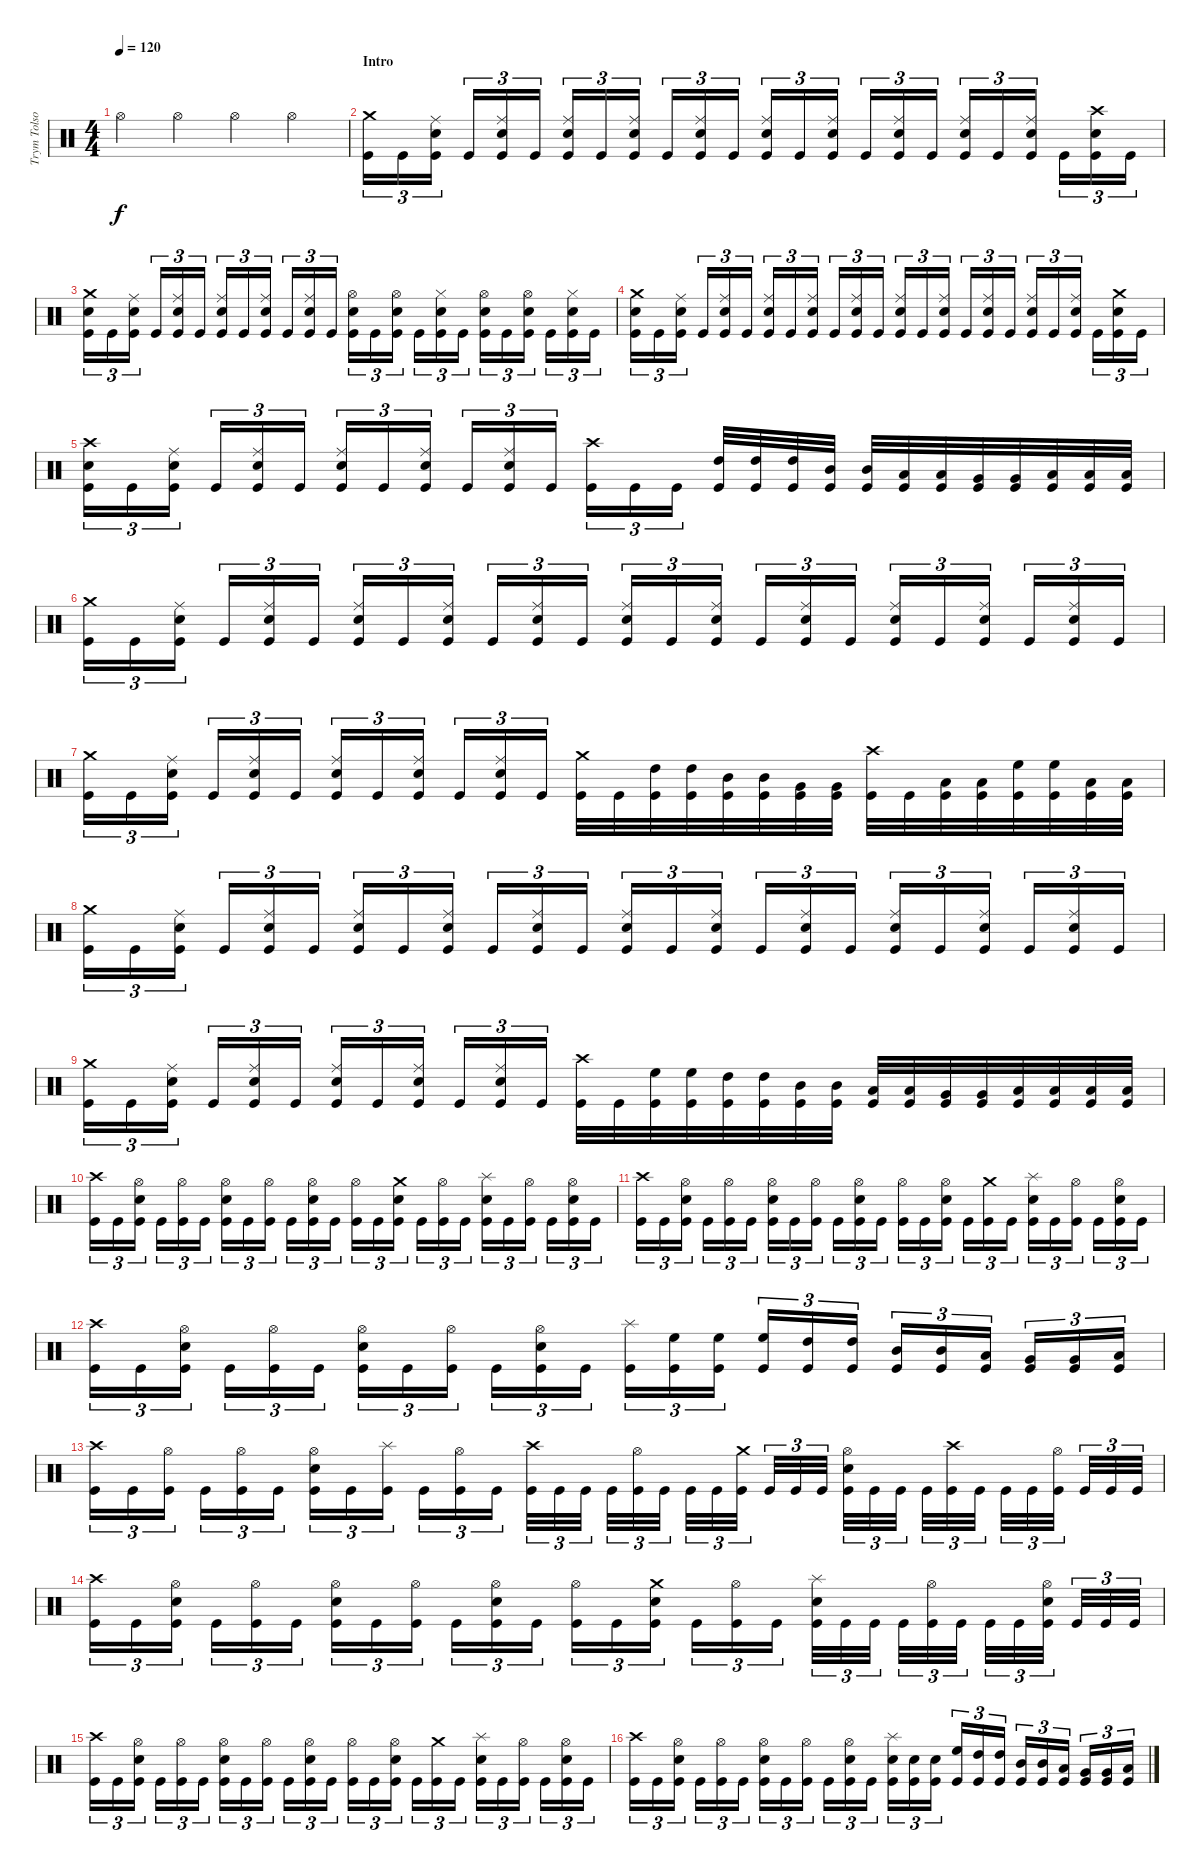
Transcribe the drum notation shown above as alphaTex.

\track ("Trym Tolson" "Trym Tolso") {instrument percussion}
\staff {score}
\articulation defaults
\ts (4 4)
\tempo 120
\clef neutral
\ks c "Hi-Hat (open)".4{dy f} "Hi-Hat (open)".4 "Hi-Hat (open)".4 "Hi-Hat (open)".4
|
\section ("" "Intro")
("Crash medium (hit)" "Kick (hit)").16{tu (3 2)} "Kick (hit)".16{tu (3 2)} ("Ride (middle)" "Electric Snare (hit)" "Kick (hit)").16{tu (3 2)} "Kick (hit)".16{tu (3 2)} ("Ride (middle)" "Electric Snare (hit)" "Kick (hit)").16{tu (3 2)} "Kick (hit)".16{tu (3 2)} ("Ride (middle)" "Electric Snare (hit)" "Kick (hit)").16{tu (3 2)} "Kick (hit)".16{tu (3 2)} ("Ride (middle)" "Electric Snare (hit)" "Kick (hit)").16{tu (3 2)} "Kick (hit)".16{tu (3 2)} ("Ride (middle)" "Electric Snare (hit)" "Kick (hit)").16{tu (3 2)} "Kick (hit)".16{tu (3 2)} ("Ride (middle)" "Electric Snare (hit)" "Kick (hit)").16{tu (3 2)} "Kick (hit)".16{tu (3 2)} ("Ride (middle)" "Electric Snare (hit)" "Kick (hit)").16{tu (3 2)} "Kick (hit)".16{tu (3 2)} ("Ride (middle)" "Electric Snare (hit)" "Kick (hit)").16{tu (3 2)} "Kick (hit)".16{tu (3 2)} ("Ride (middle)" "Electric Snare (hit)" "Kick (hit)").16{tu (3 2)} "Kick (hit)".16{tu (3 2)} ("Ride (middle)" "Electric Snare (hit)" "Kick (hit)").16{tu (3 2)} "Kick (hit)".16{tu (3 2)} ("Crash high (hit)" "Electric Snare (hit)" "Kick (hit)").16{tu (3 2)} "Kick (hit)".16{tu (3 2)} |
("Crash medium (hit)" "Electric Snare (hit)" "Kick (hit)").16{tu (3 2)} "Kick (hit)".16{tu (3 2)} ("Ride (middle)" "Electric Snare (hit)" "Kick (hit)").16{tu (3 2)} "Kick (hit)".16{tu (3 2)} ("Ride (middle)" "Electric Snare (hit)" "Kick (hit)").16{tu (3 2)} "Kick (hit)".16{tu (3 2)} ("Ride (middle)" "Electric Snare (hit)" "Kick (hit)").16{tu (3 2)} "Kick (hit)".16{tu (3 2)} ("Ride (middle)" "Electric Snare (hit)" "Kick (hit)").16{tu (3 2)} "Kick (hit)".16{tu (3 2)} ("Ride (middle)" "Electric Snare (hit)" "Kick (hit)").16{tu (3 2)} "Kick (hit)".16{tu (3 2)} ("Hi-Hat (open)" "Electric Snare (hit)" "Kick (hit)").16{tu (3 2)} "Kick (hit)".16{tu (3 2)} ("Hi-Hat (open)" "Electric Snare (hit)" "Kick (hit)").16{tu (3 2)} "Kick (hit)".16{tu (3 2)} ("Hi-Hat (closed)" "Electric Snare (hit)" "Kick (hit)").16{tu (3 2)} "Kick (hit)".16{tu (3 2)} ("Hi-Hat (open)" "Electric Snare (hit)" "Kick (hit)").16{tu (3 2)} "Kick (hit)".16{tu (3 2)} ("Hi-Hat (open)" "Electric Snare (hit)" "Kick (hit)").16{tu (3 2)} "Kick (hit)".16{tu (3 2)} ("Hi-Hat (closed)" "Electric Snare (hit)" "Kick (hit)").16{tu (3 2)} "Kick (hit)".16{tu (3 2)} |
("Crash medium (hit)" "Electric Snare (hit)" "Kick (hit)").16{tu (3 2)} "Kick (hit)".16{tu (3 2)} ("Ride (middle)" "Electric Snare (hit)" "Kick (hit)").16{tu (3 2)} "Kick (hit)".16{tu (3 2)} ("Ride (middle)" "Electric Snare (hit)" "Kick (hit)").16{tu (3 2)} "Kick (hit)".16{tu (3 2)} ("Ride (middle)" "Electric Snare (hit)" "Kick (hit)").16{tu (3 2)} "Kick (hit)".16{tu (3 2)} ("Ride (middle)" "Electric Snare (hit)" "Kick (hit)").16{tu (3 2)} "Kick (hit)".16{tu (3 2)} ("Ride (middle)" "Electric Snare (hit)" "Kick (hit)").16{tu (3 2)} "Kick (hit)".16{tu (3 2)} ("Ride (middle)" "Electric Snare (hit)" "Kick (hit)").16{tu (3 2)} "Kick (hit)".16{tu (3 2)} ("Ride (middle)" "Electric Snare (hit)" "Kick (hit)").16{tu (3 2)} "Kick (hit)".16{tu (3 2)} ("Ride (middle)" "Electric Snare (hit)" "Kick (hit)").16{tu (3 2)} "Kick (hit)".16{tu (3 2)} ("Ride (middle)" "Electric Snare (hit)" "Kick (hit)").16{tu (3 2)} "Kick (hit)".16{tu (3 2)} ("Ride (middle)" "Electric Snare (hit)" "Kick (hit)").16{tu (3 2)} "Kick (hit)".16{tu (3 2)} ("Crash medium (hit)" "Electric Snare (hit)" "Kick (hit)").16{tu (3 2)} "Kick (hit)".16{tu (3 2)} |
("Crash high (hit)" "Electric Snare (hit)" "Kick (hit)").16{tu (3 2)} "Kick (hit)".16{tu (3 2)} ("Ride (middle)" "Electric Snare (hit)" "Kick (hit)").16{tu (3 2)} "Kick (hit)".16{tu (3 2)} ("Ride (middle)" "Electric Snare (hit)" "Kick (hit)").16{tu (3 2)} "Kick (hit)".16{tu (3 2)} ("Ride (middle)" "Electric Snare (hit)" "Kick (hit)").16{tu (3 2)} "Kick (hit)".16{tu (3 2)} ("Ride (middle)" "Electric Snare (hit)" "Kick (hit)").16{tu (3 2)} "Kick (hit)".16{tu (3 2)} ("Ride (middle)" "Electric Snare (hit)" "Kick (hit)").16{tu (3 2)} "Kick (hit)".16{tu (3 2)} ("Crash high (hit)" "Kick (hit)").16{tu (3 2)} "Kick (hit)".16{tu (3 2)} "Kick (hit)".16{tu (3 2)} ("High Tom (hit)" "Kick (hit)").32 ("High Tom (hit)" "Kick (hit)").32 ("High Tom (hit)" "Kick (hit)").32 ("Mid Tom (hit)" "Kick (hit)").32 ("Mid Tom (hit)" "Kick (hit)").32 ("Low Tom (hit)" "Kick (hit)").32 ("Low Tom (hit)" "Kick (hit)").32 ("Very Low Tom (hit)" "Kick (hit)").32 ("Very Low Tom (hit)" "Kick (hit)").32 ("Low Floor Tom (hit)" "Kick (hit)").32 ("Low Floor Tom (hit)" "Kick (hit)").32 ("Low Floor Tom (hit)" "Kick (hit)").32 |
("Crash medium (hit)" "Kick (hit)").16{tu (3 2)} "Kick (hit)".16{tu (3 2)} ("Ride (middle)" "Electric Snare (hit)" "Kick (hit)").16{tu (3 2)} "Kick (hit)".16{tu (3 2)} ("Ride (middle)" "Electric Snare (hit)" "Kick (hit)").16{tu (3 2)} "Kick (hit)".16{tu (3 2)} ("Ride (middle)" "Electric Snare (hit)" "Kick (hit)").16{tu (3 2)} "Kick (hit)".16{tu (3 2)} ("Ride (middle)" "Electric Snare (hit)" "Kick (hit)").16{tu (3 2)} "Kick (hit)".16{tu (3 2)} ("Ride (middle)" "Electric Snare (hit)" "Kick (hit)").16{tu (3 2)} "Kick (hit)".16{tu (3 2)} ("Ride (middle)" "Electric Snare (hit)" "Kick (hit)").16{tu (3 2)} "Kick (hit)".16{tu (3 2)} ("Ride (middle)" "Electric Snare (hit)" "Kick (hit)").16{tu (3 2)} "Kick (hit)".16{tu (3 2)} ("Ride (middle)" "Electric Snare (hit)" "Kick (hit)").16{tu (3 2)} "Kick (hit)".16{tu (3 2)} ("Ride (middle)" "Electric Snare (hit)" "Kick (hit)").16{tu (3 2)} "Kick (hit)".16{tu (3 2)} ("Ride (middle)" "Electric Snare (hit)" "Kick (hit)").16{tu (3 2)} "Kick (hit)".16{tu (3 2)} ("Ride (middle)" "Electric Snare (hit)" "Kick (hit)").16{tu (3 2)} "Kick (hit)".16{tu (3 2)} |
("Crash medium (hit)" "Kick (hit)").16{tu (3 2)} "Kick (hit)".16{tu (3 2)} ("Ride (middle)" "Electric Snare (hit)" "Kick (hit)").16{tu (3 2)} "Kick (hit)".16{tu (3 2)} ("Ride (middle)" "Electric Snare (hit)" "Kick (hit)").16{tu (3 2)} "Kick (hit)".16{tu (3 2)} ("Ride (middle)" "Electric Snare (hit)" "Kick (hit)").16{tu (3 2)} "Kick (hit)".16{tu (3 2)} ("Ride (middle)" "Electric Snare (hit)" "Kick (hit)").16{tu (3 2)} "Kick (hit)".16{tu (3 2)} ("Ride (middle)" "Electric Snare (hit)" "Kick (hit)").16{tu (3 2)} "Kick (hit)".16{tu (3 2)} ("Crash medium (hit)" "Kick (hit)").32 "Kick (hit)".32 ("High Tom (hit)" "Kick (hit)").32 ("High Tom (hit)" "Kick (hit)").32 ("Mid Tom (hit)" "Kick (hit)").32 ("Mid Tom (hit)" "Kick (hit)").32 ("Very Low Tom (hit)" "Kick (hit)").32 ("Very Low Tom (hit)" "Kick (hit)").32 ("Crash high (hit)" "Kick (hit)").32 "Kick (hit)".32 ("Low Tom (hit)" "Kick (hit)").32 ("Low Tom (hit)" "Kick (hit)").32 ("High Floor Tom (hit)" "Kick (hit)").32 ("High Floor Tom (hit)" "Kick (hit)").32 ("Low Floor Tom (hit)" "Kick (hit)").32 ("Low Floor Tom (hit)" "Kick (hit)").32 |
("Crash medium (hit)" "Kick (hit)").16{tu (3 2)} "Kick (hit)".16{tu (3 2)} ("Ride (middle)" "Electric Snare (hit)" "Kick (hit)").16{tu (3 2)} "Kick (hit)".16{tu (3 2)} ("Ride (middle)" "Electric Snare (hit)" "Kick (hit)").16{tu (3 2)} "Kick (hit)".16{tu (3 2)} ("Ride (middle)" "Electric Snare (hit)" "Kick (hit)").16{tu (3 2)} "Kick (hit)".16{tu (3 2)} ("Ride (middle)" "Electric Snare (hit)" "Kick (hit)").16{tu (3 2)} "Kick (hit)".16{tu (3 2)} ("Ride (middle)" "Electric Snare (hit)" "Kick (hit)").16{tu (3 2)} "Kick (hit)".16{tu (3 2)} ("Ride (middle)" "Electric Snare (hit)" "Kick (hit)").16{tu (3 2)} "Kick (hit)".16{tu (3 2)} ("Ride (middle)" "Electric Snare (hit)" "Kick (hit)").16{tu (3 2)} "Kick (hit)".16{tu (3 2)} ("Ride (middle)" "Electric Snare (hit)" "Kick (hit)").16{tu (3 2)} "Kick (hit)".16{tu (3 2)} ("Ride (middle)" "Electric Snare (hit)" "Kick (hit)").16{tu (3 2)} "Kick (hit)".16{tu (3 2)} ("Ride (middle)" "Electric Snare (hit)" "Kick (hit)").16{tu (3 2)} "Kick (hit)".16{tu (3 2)} ("Ride (middle)" "Electric Snare (hit)" "Kick (hit)").16{tu (3 2)} "Kick (hit)".16{tu (3 2)} |
("Crash medium (hit)" "Kick (hit)").16{tu (3 2)} "Kick (hit)".16{tu (3 2)} ("Ride (middle)" "Electric Snare (hit)" "Kick (hit)").16{tu (3 2)} "Kick (hit)".16{tu (3 2)} ("Ride (middle)" "Electric Snare (hit)" "Kick (hit)").16{tu (3 2)} "Kick (hit)".16{tu (3 2)} ("Ride (middle)" "Electric Snare (hit)" "Kick (hit)").16{tu (3 2)} "Kick (hit)".16{tu (3 2)} ("Ride (middle)" "Electric Snare (hit)" "Kick (hit)").16{tu (3 2)} "Kick (hit)".16{tu (3 2)} ("Ride (middle)" "Electric Snare (hit)" "Kick (hit)").16{tu (3 2)} "Kick (hit)".16{tu (3 2)} ("Crash high (hit)" "Kick (hit)").32 "Kick (hit)".32 ("High Floor Tom (hit)" "Kick (hit)").32 ("High Floor Tom (hit)" "Kick (hit)").32 ("High Tom (hit)" "Kick (hit)").32 ("High Tom (hit)" "Kick (hit)").32 ("Mid Tom (hit)" "Kick (hit)").32 ("Mid Tom (hit)" "Kick (hit)").32 ("Low Tom (hit)" "Kick (hit)").32 ("Low Tom (hit)" "Kick (hit)").32 ("Very Low Tom (hit)" "Kick (hit)").32 ("Very Low Tom (hit)" "Kick (hit)").32 ("Low Floor Tom (hit)" "Kick (hit)").32 ("Low Floor Tom (hit)" "Kick (hit)").32 ("Low Floor Tom (hit)" "Kick (hit)").32 ("Low Floor Tom (hit)" "Kick (hit)").32 |
("Crash high (hit)" "Kick (hit)").16{tu (3 2)} "Kick (hit)".16{tu (3 2)} ("Hi-Hat (open)" "Electric Snare (hit)" "Kick (hit)").16{tu (3 2)} "Kick (hit)".16{tu (3 2)} ("Hi-Hat (open)" "Kick (hit)").16{tu (3 2)} "Kick (hit)".16{tu (3 2)} ("Hi-Hat (open)" "Electric Snare (hit)" "Kick (hit)").16{tu (3 2)} "Kick (hit)".16{tu (3 2)} ("Hi-Hat (open)" "Kick (hit)").16{tu (3 2)} "Kick (hit)".16{tu (3 2)} ("Hi-Hat (open)" "Electric Snare (hit)" "Kick (hit)").16{tu (3 2)} "Kick (hit)".16{tu (3 2)} ("Hi-Hat (open)" "Kick (hit)").16{tu (3 2)} "Kick (hit)".16{tu (3 2)} ("Crash medium (hit)" "Electric Snare (hit)" "Kick (hit)").16{tu (3 2)} "Kick (hit)".16{tu (3 2)} ("Hi-Hat (open)" "Kick (hit)").16{tu (3 2)} "Kick (hit)".16{tu (3 2)} ("Splash (hit)" "Electric Snare (hit)" "Kick (hit)").16{tu (3 2)} "Kick (hit)".16{tu (3 2)} ("Hi-Hat (open)" "Kick (hit)").16{tu (3 2)} "Kick (hit)".16{tu (3 2)} ("Hi-Hat (open)" "Electric Snare (hit)" "Kick (hit)").16{tu (3 2)} "Kick (hit)".16{tu (3 2)} |
("Crash high (hit)" "Kick (hit)").16{tu (3 2)} "Kick (hit)".16{tu (3 2)} ("Hi-Hat (open)" "Electric Snare (hit)" "Kick (hit)").16{tu (3 2)} "Kick (hit)".16{tu (3 2)} ("Hi-Hat (open)" "Kick (hit)").16{tu (3 2)} "Kick (hit)".16{tu (3 2)} ("Hi-Hat (open)" "Electric Snare (hit)" "Kick (hit)").16{tu (3 2)} "Kick (hit)".16{tu (3 2)} ("Hi-Hat (open)" "Kick (hit)").16{tu (3 2)} "Kick (hit)".16{tu (3 2)} ("Hi-Hat (open)" "Electric Snare (hit)" "Kick (hit)").16{tu (3 2)} "Kick (hit)".16{tu (3 2)} ("Hi-Hat (open)" "Kick (hit)").16{tu (3 2)} "Kick (hit)".16{tu (3 2)} ("Hi-Hat (open)" "Electric Snare (hit)" "Kick (hit)").16{tu (3 2)} "Kick (hit)".16{tu (3 2)} ("Crash medium (hit)" "Kick (hit)").16{tu (3 2)} "Kick (hit)".16{tu (3 2)} ("Splash (hit)" "Electric Snare (hit)" "Kick (hit)").16{tu (3 2)} "Kick (hit)".16{tu (3 2)} ("Hi-Hat (open)" "Kick (hit)").16{tu (3 2)} "Kick (hit)".16{tu (3 2)} ("Hi-Hat (open)" "Electric Snare (hit)" "Kick (hit)").16{tu (3 2)} "Kick (hit)".16{tu (3 2)} |
("Crash high (hit)" "Kick (hit)").16{tu (3 2)} "Kick (hit)".16{tu (3 2)} ("Hi-Hat (open)" "Electric Snare (hit)" "Kick (hit)").16{tu (3 2)} "Kick (hit)".16{tu (3 2)} ("Hi-Hat (open)" "Kick (hit)").16{tu (3 2)} "Kick (hit)".16{tu (3 2)} ("Hi-Hat (open)" "Electric Snare (hit)" "Kick (hit)").16{tu (3 2)} "Kick (hit)".16{tu (3 2)} ("Hi-Hat (open)" "Kick (hit)").16{tu (3 2)} "Kick (hit)".16{tu (3 2)} ("Hi-Hat (open)" "Electric Snare (hit)" "Kick (hit)").16{tu (3 2)} "Kick (hit)".16{tu (3 2)} ("Splash (hit)" "Kick (hit)").16{tu (3 2)} ("High Floor Tom (hit)" "Kick (hit)").16{tu (3 2)} ("High Floor Tom (hit)" "Kick (hit)").16{tu (3 2)} ("High Floor Tom (hit)" "Kick (hit)").16{tu (3 2)} ("High Tom (hit)" "Kick (hit)").16{tu (3 2)} ("High Tom (hit)" "Kick (hit)").16{tu (3 2)} ("Mid Tom (hit)" "Kick (hit)").16{tu (3 2)} ("Mid Tom (hit)" "Kick (hit)").16{tu (3 2)} ("Low Tom (hit)" "Kick (hit)").16{tu (3 2)} ("Very Low Tom (hit)" "Kick (hit)").16{tu (3 2)} ("Very Low Tom (hit)" "Kick (hit)").16{tu (3 2)} ("Low Floor Tom (hit)" "Kick (hit)").16{tu (3 2)} |
("Crash high (hit)" "Kick (hit)").16{tu (3 2)} "Kick (hit)".16{tu (3 2)} ("Hi-Hat (open)" "Kick (hit)").16{tu (3 2)} "Kick (hit)".16{tu (3 2)} ("Hi-Hat (open)" "Kick (hit)").16{tu (3 2)} "Kick (hit)".16{tu (3 2)} ("Hi-Hat (open)" "Electric Snare (hit)" "Kick (hit)").16{tu (3 2)} "Kick (hit)".16{tu (3 2)} ("Splash (hit)" "Kick (hit)").16{tu (3 2)} "Kick (hit)".16{tu (3 2)} ("Hi-Hat (open)" "Kick (hit)").16{tu (3 2)} "Kick (hit)".16{tu (3 2)} ("Crash high (hit)" "Kick (hit)").32{tu (3 2)} "Kick (hit)".32{tu (3 2)} "Kick (hit)".32{tu (3 2)} "Kick (hit)".32{tu (3 2)} ("Hi-Hat (open)" "Kick (hit)").32{tu (3 2)} "Kick (hit)".32{tu (3 2)} "Kick (hit)".32{tu (3 2)} "Kick (hit)".32{tu (3 2)} ("Crash medium (hit)" "Kick (hit)").32{tu (3 2)} "Kick (hit)".32{tu (3 2)} "Kick (hit)".32{tu (3 2)} "Kick (hit)".32{tu (3 2)} ("Hi-Hat (open)" "Electric Snare (hit)" "Kick (hit)").32{tu (3 2)} "Kick (hit)".32{tu (3 2)} "Kick (hit)".32{tu (3 2)} "Kick (hit)".32{tu (3 2)} ("Crash high (hit)" "Kick (hit)").32{tu (3 2)} "Kick (hit)".32{tu (3 2)} "Kick (hit)".32{tu (3 2)} "Kick (hit)".32{tu (3 2)} ("Hi-Hat (open)" "Kick (hit)").32{tu (3 2)} "Kick (hit)".32{tu (3 2)} "Kick (hit)".32{tu (3 2)} "Kick (hit)".32{tu (3 2)} |
("Crash high (hit)" "Kick (hit)").16{tu (3 2)} "Kick (hit)".16{tu (3 2)} ("Hi-Hat (open)" "Electric Snare (hit)" "Kick (hit)").16{tu (3 2)} "Kick (hit)".16{tu (3 2)} ("Hi-Hat (open)" "Kick (hit)").16{tu (3 2)} "Kick (hit)".16{tu (3 2)} ("Hi-Hat (open)" "Electric Snare (hit)" "Kick (hit)").16{tu (3 2)} "Kick (hit)".16{tu (3 2)} ("Hi-Hat (open)" "Kick (hit)").16{tu (3 2)} "Kick (hit)".16{tu (3 2)} ("Hi-Hat (open)" "Electric Snare (hit)" "Kick (hit)").16{tu (3 2)} "Kick (hit)".16{tu (3 2)} ("Hi-Hat (open)" "Kick (hit)").16{tu (3 2)} "Kick (hit)".16{tu (3 2)} ("Crash medium (hit)" "Electric Snare (hit)" "Kick (hit)").16{tu (3 2)} "Kick (hit)".16{tu (3 2)} ("Hi-Hat (open)" "Kick (hit)").16{tu (3 2)} "Kick (hit)".16{tu (3 2)} ("Splash (hit)" "Electric Snare (hit)" "Kick (hit)").32{tu (3 2)} "Kick (hit)".32{tu (3 2)} "Kick (hit)".32{tu (3 2)} "Kick (hit)".32{tu (3 2)} ("Hi-Hat (open)" "Kick (hit)").32{tu (3 2)} "Kick (hit)".32{tu (3 2)} "Kick (hit)".32{tu (3 2)} "Kick (hit)".32{tu (3 2)} ("Hi-Hat (open)" "Electric Snare (hit)" "Kick (hit)").32{tu (3 2)} "Kick (hit)".32{tu (3 2)} "Kick (hit)".32{tu (3 2)} "Kick (hit)".32{tu (3 2)} |
("Crash high (hit)" "Kick (hit)").16{tu (3 2)} "Kick (hit)".16{tu (3 2)} ("Hi-Hat (open)" "Electric Snare (hit)" "Kick (hit)").16{tu (3 2)} "Kick (hit)".16{tu (3 2)} ("Hi-Hat (open)" "Kick (hit)").16{tu (3 2)} "Kick (hit)".16{tu (3 2)} ("Hi-Hat (open)" "Electric Snare (hit)" "Kick (hit)").16{tu (3 2)} "Kick (hit)".16{tu (3 2)} ("Hi-Hat (open)" "Kick (hit)").16{tu (3 2)} "Kick (hit)".16{tu (3 2)} ("Hi-Hat (open)" "Electric Snare (hit)" "Kick (hit)").16{tu (3 2)} "Kick (hit)".16{tu (3 2)} ("Hi-Hat (open)" "Kick (hit)").16{tu (3 2)} "Kick (hit)".16{tu (3 2)} ("Hi-Hat (open)" "Electric Snare (hit)" "Kick (hit)").16{tu (3 2)} "Kick (hit)".16{tu (3 2)} ("Crash medium (hit)" "Kick (hit)").16{tu (3 2)} "Kick (hit)".16{tu (3 2)} ("Splash (hit)" "Electric Snare (hit)" "Kick (hit)").16{tu (3 2)} "Kick (hit)".16{tu (3 2)} ("Hi-Hat (open)" "Kick (hit)").16{tu (3 2)} "Kick (hit)".16{tu (3 2)} ("Hi-Hat (open)" "Electric Snare (hit)" "Kick (hit)").16{tu (3 2)} "Kick (hit)".16{tu (3 2)} |
("Crash high (hit)" "Kick (hit)").16{tu (3 2)} "Kick (hit)".16{tu (3 2)} ("Hi-Hat (open)" "Electric Snare (hit)" "Kick (hit)").16{tu (3 2)} "Kick (hit)".16{tu (3 2)} ("Hi-Hat (open)" "Kick (hit)").16{tu (3 2)} "Kick (hit)".16{tu (3 2)} ("Hi-Hat (open)" "Electric Snare (hit)" "Kick (hit)").16{tu (3 2)} "Kick (hit)".16{tu (3 2)} ("Hi-Hat (open)" "Kick (hit)").16{tu (3 2)} "Kick (hit)".16{tu (3 2)} ("Hi-Hat (open)" "Electric Snare (hit)" "Kick (hit)").16{tu (3 2)} "Kick (hit)".16{tu (3 2)} ("Splash (hit)" "Electric Snare (hit)" "Kick (hit)").16{tu (3 2)} ("Electric Snare (hit)" "Kick (hit)").16{tu (3 2)} ("Electric Snare (hit)" "Kick (hit)").16{tu (3 2)} ("High Floor Tom (hit)" "Kick (hit)").16{tu (3 2)} ("High Tom (hit)" "Kick (hit)").16{tu (3 2)} ("High Tom (hit)" "Kick (hit)").16{tu (3 2)} ("Mid Tom (hit)" "Kick (hit)").16{tu (3 2)} ("Mid Tom (hit)" "Kick (hit)").16{tu (3 2)} ("Low Tom (hit)" "Kick (hit)").16{tu (3 2)} ("Very Low Tom (hit)" "Kick (hit)").16{tu (3 2)} ("Very Low Tom (hit)" "Kick (hit)").16{tu (3 2)} ("Low Floor Tom (hit)" "Kick (hit)").16{tu (3 2)}
